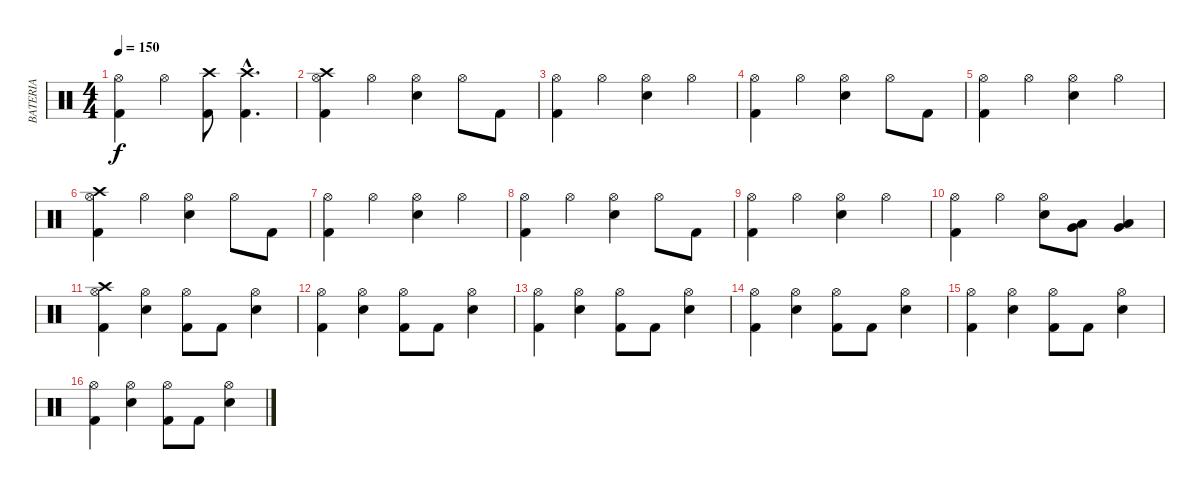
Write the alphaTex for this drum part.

\track ("BATERIA" "BATERIA") {instrument percussion}
\staff {score}
\articulation defaults
\ts (4 4)
\tempo 150
\clef neutral
\ks c
("Hi-Hat (open)" "Kick (hit) 2").4{dy f} "Hi-Hat (open)".4 ("Crash high (hit)" "Kick (hit) 2").8 ("Crash high (hit)"{hac} "Kick (hit) 2"{hac}).4{d} |
("Crash high (hit)" "Hi-Hat (open)" "Kick (hit) 2").4 "Hi-Hat (open)".4 ("Hi-Hat (open)" "Snare (hit) 2").4 "Hi-Hat (open)".8 "Kick (hit) 2".8 |
("Hi-Hat (open)" "Kick (hit) 2").4 "Hi-Hat (open)".4 ("Hi-Hat (open)" "Snare (hit) 2").4 "Hi-Hat (open)".4 |
("Hi-Hat (open)" "Kick (hit) 2").4 "Hi-Hat (open)".4 ("Hi-Hat (open)" "Snare (hit) 2").4 "Hi-Hat (open)".8 "Kick (hit) 2".8 |
("Hi-Hat (open)" "Kick (hit) 2").4 "Hi-Hat (open)".4 ("Hi-Hat (open)" "Snare (hit) 2").4 "Hi-Hat (open)".4 |
("Crash high (hit)" "Hi-Hat (open)" "Kick (hit) 2").4 "Hi-Hat (open)".4 ("Hi-Hat (open)" "Snare (hit) 2").4 "Hi-Hat (open)".8 "Kick (hit) 2".8 |
("Hi-Hat (open)" "Kick (hit) 2").4 "Hi-Hat (open)".4 ("Hi-Hat (open)" "Snare (hit) 2").4 "Hi-Hat (open)".4 |
("Hi-Hat (open)" "Kick (hit) 2").4 "Hi-Hat (open)".4 ("Hi-Hat (open)" "Snare (hit) 2").4 "Hi-Hat (open)".8 "Kick (hit) 2".8 |
("Hi-Hat (open)" "Kick (hit) 2").4 "Hi-Hat (open)".4 ("Hi-Hat (open)" "Snare (hit) 2").4 "Hi-Hat (open)".4 |
("Hi-Hat (open)" "Kick (hit) 2").4 "Hi-Hat (open)".4 ("Hi-Hat (open)" "Snare (hit) 2").8 ("Very Low Tom (hit)" "Low Floor Tom (hit)").8 ("Very Low Tom (hit)" "Low Floor Tom (hit)").4 |
("Crash high (hit)" "Hi-Hat (open)" "Kick (hit) 2").4 ("Hi-Hat (open)" "Snare (hit) 2").4 ("Hi-Hat (open)" "Kick (hit) 2").8 "Kick (hit) 2".8 ("Hi-Hat (open)" "Snare (hit) 2").4 |
("Hi-Hat (open)" "Kick (hit) 2").4 ("Hi-Hat (open)" "Snare (hit) 2").4 ("Hi-Hat (open)" "Kick (hit) 2").8 "Kick (hit) 2".8 ("Hi-Hat (open)" "Snare (hit) 2").4 |
("Hi-Hat (open)" "Kick (hit) 2").4 ("Hi-Hat (open)" "Snare (hit) 2").4 ("Hi-Hat (open)" "Kick (hit) 2").8 "Kick (hit) 2".8 ("Hi-Hat (open)" "Snare (hit) 2").4 |
("Hi-Hat (open)" "Kick (hit) 2").4 ("Hi-Hat (open)" "Snare (hit) 2").4 ("Hi-Hat (open)" "Kick (hit) 2").8 "Kick (hit) 2".8 ("Hi-Hat (open)" "Snare (hit) 2").4 |
("Hi-Hat (open)" "Kick (hit) 2").4 ("Hi-Hat (open)" "Snare (hit) 2").4 ("Hi-Hat (open)" "Kick (hit) 2").8 "Kick (hit) 2".8 ("Hi-Hat (open)" "Snare (hit) 2").4 |
("Hi-Hat (open)" "Kick (hit) 2").4 ("Hi-Hat (open)" "Snare (hit) 2").4 ("Hi-Hat (open)" "Kick (hit) 2").8 "Kick (hit) 2".8 ("Hi-Hat (open)" "Snare (hit) 2").4
